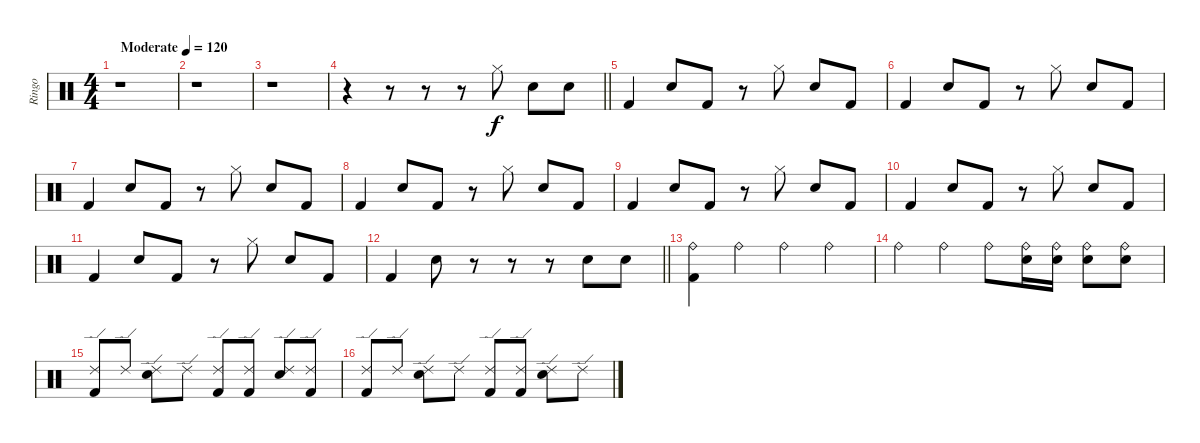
\track ("Ringo" "Ringo") {instrument percussion}
\staff {score}
\articulation defaults
\ts (4 4)
\tempo (120 "Moderate")
\clef neutral
\ks c
r.1{dy f} |
r.1 |
r.1 |
\barLineRight lightlight
r.4 r.8 r.8 r.8 "Hi-Hat (closed)".8 "Snare (hit) 2".8 "Snare (hit) 2".8 |
"Kick (hit) 2".4 "Snare (hit) 2".8 "Kick (hit) 2".8 r.8 "Hi-Hat (closed)".8 "Snare (hit) 2".8 "Kick (hit) 2".8 |
"Kick (hit) 2".4 "Snare (hit) 2".8 "Kick (hit) 2".8 r.8 "Hi-Hat (closed)".8 "Snare (hit) 2".8 "Kick (hit) 2".8 |
"Kick (hit) 2".4 "Snare (hit) 2".8 "Kick (hit) 2".8 r.8 "Hi-Hat (closed)".8 "Snare (hit) 2".8 "Kick (hit) 2".8 |
"Kick (hit) 2".4 "Snare (hit) 2".8 "Kick (hit) 2".8 r.8 "Hi-Hat (closed)".8 "Snare (hit) 2".8 "Kick (hit) 2".8 |
"Kick (hit) 2".4 "Snare (hit) 2".8 "Kick (hit) 2".8 r.8 "Hi-Hat (closed)".8 "Snare (hit) 2".8 "Kick (hit) 2".8 |
"Kick (hit) 2".4 "Snare (hit) 2".8 "Kick (hit) 2".8 r.8 "Hi-Hat (closed)".8 "Snare (hit) 2".8 "Kick (hit) 2".8 |
"Kick (hit) 2".4 "Snare (hit) 2".8 "Kick (hit) 2".8 r.8 "Hi-Hat (closed)".8 "Snare (hit) 2".8 "Kick (hit) 2".8 |
\barLineRight lightlight "Kick (hit) 2".4 "Snare (hit) 2".8
r.8 r.8 r.8 "Snare (hit) 2".8 "Snare (hit) 2".8 |
("Ride (bell)" "Kick (hit) 2").4 "Ride (bell)".4 "Ride (bell)".4 "Ride (bell)".4 |
"Ride (bell)".4 "Ride (bell)".4 "Ride (bell)".8 ("Ride (bell)" "Snare (hit) 2").16 ("Ride (bell)" "Snare (hit) 2").16 ("Ride (bell)" "Snare (hit) 2").8 ("Ride (bell)" "Snare (hit) 2").8 |
("Ride (edge) 2" "Kick (hit) 2").8 "Ride (edge) 2".8 ("Ride (edge) 2" "Snare (hit) 2").8 "Ride (edge) 2".8 ("Ride (edge) 2" "Kick (hit) 2").8 ("Ride (edge) 2" "Kick (hit) 2").8 ("Ride (edge) 2" "Snare (hit) 2").8 ("Ride (edge) 2" "Kick (hit) 2").8 |
("Ride (edge) 2" "Kick (hit) 2").8 "Ride (edge) 2".8 ("Ride (edge) 2" "Snare (hit) 2").8 "Ride (edge) 2".8 ("Ride (edge) 2" "Kick (hit) 2").8 ("Ride (edge) 2" "Kick (hit) 2").8 ("Ride (edge) 2" "Snare (hit) 2").8 "Ride (edge) 2".8
